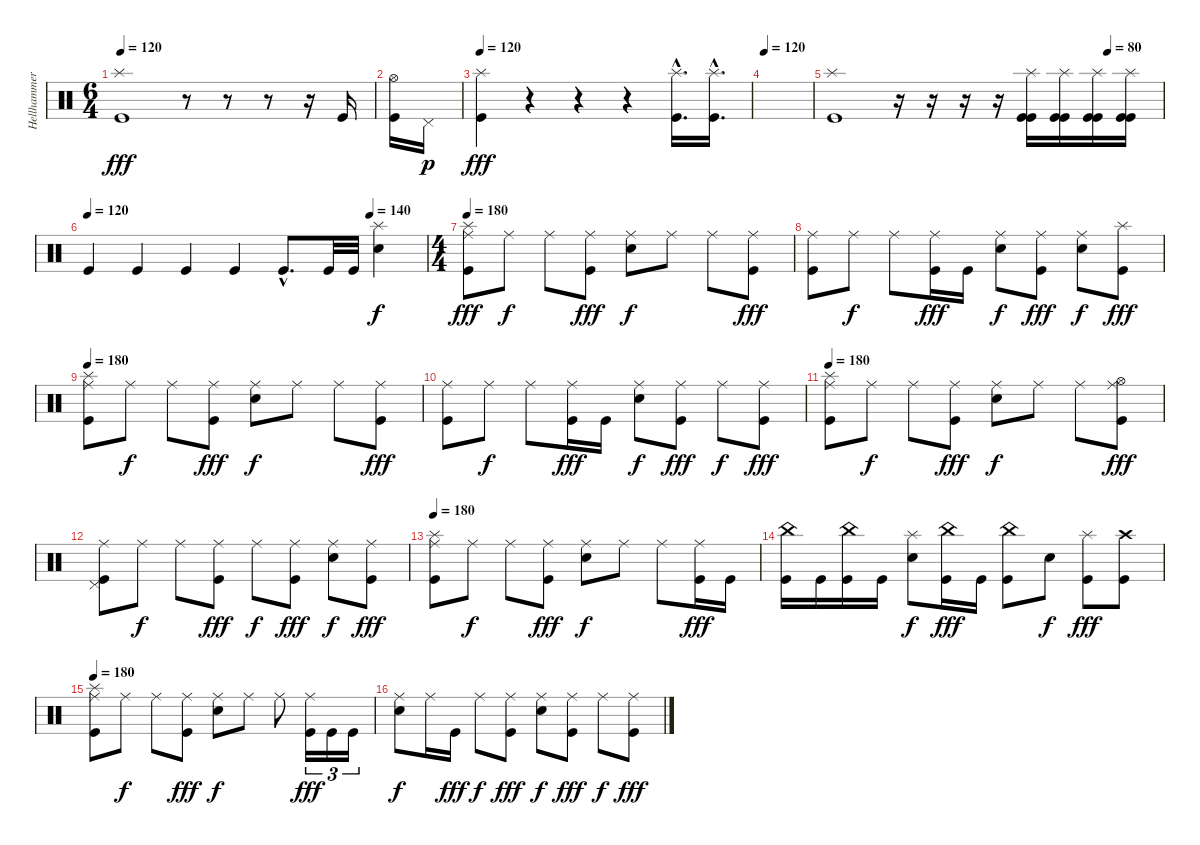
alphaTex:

\track ("Hellhammer" "Hellhammer") {instrument percussion}
\staff {score}
\articulation defaults
\ts (6 4)
\tempo 120
\clef neutral
\ks c
("Splash (hit)" "Kick (hit)").1{dy fff} r.8 r.8 r.8 r.16 "Kick (hit)".16 |
("Hi-Hat (open)" "Kick (hit)").16 "Pedal Hi-Hat (hit)".16{dy p} |
\tempo 120
("Splash (hit)" "Kick (hit)").4{dy fff} r.4 r.4 r.4 ("Splash (hit)"{hac} "Kick (hit)"{hac}).16{d} ("Splash (hit)"{hac} "Kick (hit)"{hac}).16{d} |
\tempo 120
|
\tempo (80 0.8333333333333334)
("Splash (hit)" "Kick (hit)").1 r.16 r.16 r.16 r.16 ("Kick (hit)" "Splash (hit)" "Kick (hit)").16 ("Kick (hit)" "Splash (hit)" "Kick (hit)").16 ("Kick (hit)" "Splash (hit)" "Kick (hit)").16 ("Kick (hit)" "Splash (hit)" "Kick (hit)").16 |
\tempo 120
\tempo (140 0.8333333333333334)
"Kick (hit)".4 "Kick (hit)".4 "Kick (hit)".4 "Kick (hit)".4 "Kick (hit)"{hac}.8{d} "Kick (hit)".32 "Kick (hit)".32 ("Splash (hit)" "Electric Snare (hit)").4{dy f} |
\ts (4 4)
\tempo 180
("Ride (middle)" "Splash (hit)" "Kick (hit)").8{dy fff} "Ride (middle)".8{dy f} "Ride (middle)".8 ("Ride (middle)" "Kick (hit)").8{dy fff} ("Ride (middle)" "Electric Snare (hit)").8{dy f} "Ride (middle)".8 "Ride (middle)".8 ("Ride (middle)" "Kick (hit)").8{dy fff} |
("Ride (middle)" "Kick (hit)").8 "Ride (middle)".8{dy f} "Ride (middle)".8 ("Ride (middle)" "Kick (hit)").16{dy fff} "Kick (hit)".16 ("Ride (middle)" "Electric Snare (hit)").8{dy f} ("Ride (middle)" "Kick (hit)").8{dy fff} ("Ride (middle)" "Electric Snare (hit)").8{dy f} ("Splash (hit)" "Kick (hit)").8{dy fff} |
\tempo 180
("Ride (middle)" "Splash (hit)" "Kick (hit)").8 "Ride (middle)".8{dy f} "Ride (middle)".8 ("Ride (middle)" "Kick (hit)").8{dy fff} ("Ride (middle)" "Electric Snare (hit)").8{dy f} "Ride (middle)".8 "Ride (middle)".8 ("Ride (middle)" "Kick (hit)").8{dy fff} |
("Ride (middle)" "Kick (hit)").8 "Ride (middle)".8{dy f} "Ride (middle)".8 ("Ride (middle)" "Kick (hit)").16{dy fff} "Kick (hit)".16 ("Ride (middle)" "Electric Snare (hit)").8{dy f} ("Ride (middle)" "Kick (hit)").8{dy fff} "Ride (middle)".8{dy f} ("Ride (middle)" "Kick (hit)").8{dy fff} |
\tempo 180
("Ride (middle)" "Splash (hit)" "Kick (hit)").8 "Ride (middle)".8{dy f} "Ride (middle)".8 ("Ride (middle)" "Kick (hit)").8{dy fff} ("Ride (middle)" "Electric Snare (hit)").8{dy f} "Ride (middle)".8 "Ride (middle)".8 ("Ride (middle)" "Hi-Hat (open)" "Kick (hit)").8{dy fff} |
("Ride (middle)" "Pedal Hi-Hat (hit)" "Kick (hit)").8 "Ride (middle)".8{dy f} "Ride (middle)".8 ("Ride (middle)" "Kick (hit)").8{dy fff} "Ride (middle)".8{dy f} ("Ride (middle)" "Kick (hit)").8{dy fff} ("Ride (middle)" "Electric Snare (hit)").8{dy f} ("Ride (middle)" "Kick (hit)").8{dy fff} |
\tempo 180
("Ride (middle)" "Splash (hit)" "Kick (hit)").8 "Ride (middle)".8{dy f} "Ride (middle)".8 ("Ride (middle)" "Kick (hit)").8{dy fff} ("Ride (middle)" "Electric Snare (hit)").8{dy f} "Ride (middle)".8 "Ride (middle)".8 ("Ride (middle)" "Kick (hit)").16{dy fff} "Kick (hit)".16 |
("China (hit)" "Kick (hit)").16 "Kick (hit)".16 ("China (hit)" "Kick (hit)").16 "Kick (hit)".16 ("Splash (hit)" "Electric Snare (hit)").8{dy f} ("China (hit)" "Kick (hit)").16{dy fff} "Kick (hit)".16 ("China (hit)" "Kick (hit)").8 "Electric Snare (hit)".8{dy f} ("Splash (hit)" "Kick (hit)").8{dy fff} ("Crash high (hit)" "Kick (hit)").8 |
\tempo 180
("Ride (middle)" "Splash (hit)" "Kick (hit)").8 "Ride (middle)".8{dy f} "Ride (middle)".8 ("Ride (middle)" "Kick (hit)").8{dy fff} ("Ride (middle)" "Electric Snare (hit)").8{dy f} "Ride (middle)".8 "Ride (middle)".8 ("Ride (middle)" "Kick (hit)").16{tu (3 2) dy fff} "Kick (hit)".16{tu (3 2)} "Kick (hit)".16{tu (3 2)} |
("Ride (middle)" "Electric Snare (hit)").8{dy f} "Ride (middle)".16 "Kick (hit)".16{dy fff} "Ride (middle)".8{dy f} ("Ride (middle)" "Kick (hit)").8{dy fff} ("Ride (middle)" "Electric Snare (hit)").8{dy f} ("Ride (middle)" "Kick (hit)").8{dy fff} "Ride (middle)".8{dy f} ("Ride (middle)" "Kick (hit)").8{dy fff}
